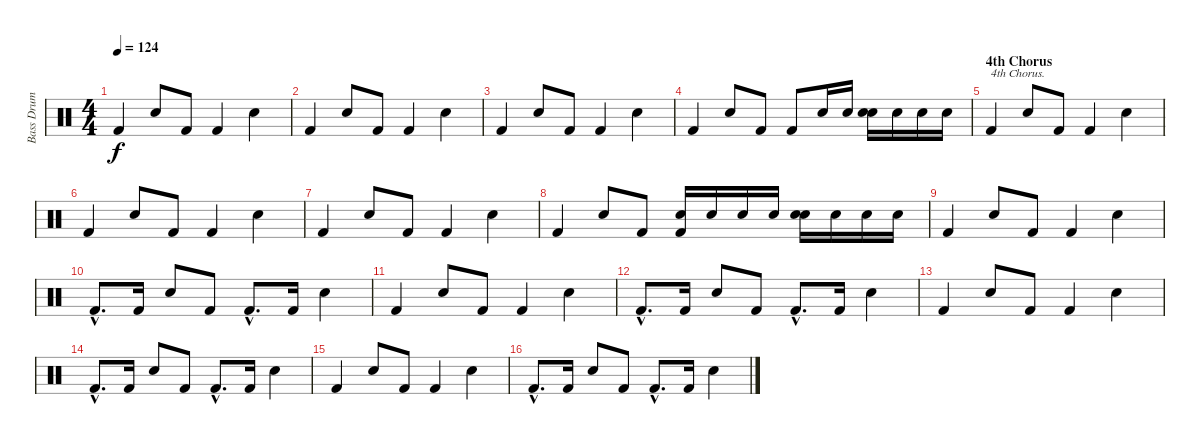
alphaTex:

\track ("Bass Drum and Snares" "Bass Drum ") {instrument percussion}
\staff {score}
\articulation defaults
\ts (4 4)
\tempo 124
\clef neutral
\ks c "Kick (hit) 2".4{dy f} "Snare (hit) 2".8 "Kick (hit) 2".8 "Kick (hit) 2".4 "Snare (hit) 2".4
|
"Kick (hit) 2".4 "Snare (hit) 2".8 "Kick (hit) 2".8 "Kick (hit) 2".4 "Snare (hit) 2".4 |
"Kick (hit) 2".4 "Snare (hit) 2".8 "Kick (hit) 2".8 "Kick (hit) 2".4 "Snare (hit) 2".4 |
"Kick (hit) 2".4 "Snare (hit) 2".8 "Kick (hit) 2".8 "Kick (hit) 2".8 "Electric Snare (hit)".16 "Electric Snare (hit)".16 ("Electric Snare (hit)" "Snare (hit) 2").16 "Electric Snare (hit)".16 "Electric Snare (hit)".16 "Electric Snare (hit)".16 |
\section ("" "4th Chorus")
"Kick (hit) 2".4{txt "4th Chorus."} "Snare (hit) 2".8 "Kick (hit) 2".8 "Kick (hit) 2".4 "Snare (hit) 2".4 |
"Kick (hit) 2".4 "Snare (hit) 2".8 "Kick (hit) 2".8 "Kick (hit) 2".4 "Snare (hit) 2".4 |
"Kick (hit) 2".4 "Snare (hit) 2".8 "Kick (hit) 2".8 "Kick (hit) 2".4 "Snare (hit) 2".4 |
"Kick (hit) 2".4 "Snare (hit) 2".8 "Kick (hit) 2".8 ("Electric Snare (hit)" "Kick (hit) 2").16 "Electric Snare (hit)".16 "Electric Snare (hit)".16 "Electric Snare (hit)".16 ("Electric Snare (hit)" "Snare (hit) 2").16 "Electric Snare (hit)".16 "Electric Snare (hit)".16 "Electric Snare (hit)".16 |
"Kick (hit) 2".4 "Snare (hit) 2".8 "Kick (hit) 2".8 "Kick (hit) 2".4 "Snare (hit) 2".4 |
"Kick (hit) 2"{hac}.8{d} "Kick (hit) 2".16 "Snare (hit) 2".8 "Kick (hit) 2".8 "Kick (hit) 2"{hac}.8{d} "Kick (hit) 2".16 "Snare (hit) 2".4 |
"Kick (hit) 2".4 "Snare (hit) 2".8 "Kick (hit) 2".8 "Kick (hit) 2".4 "Snare (hit) 2".4 |
"Kick (hit) 2"{hac}.8{d} "Kick (hit) 2".16 "Snare (hit) 2".8 "Kick (hit) 2".8 "Kick (hit) 2"{hac}.8{d} "Kick (hit) 2".16 "Snare (hit) 2".4 |
"Kick (hit) 2".4 "Snare (hit) 2".8 "Kick (hit) 2".8 "Kick (hit) 2".4 "Snare (hit) 2".4 |
"Kick (hit) 2"{hac}.8{d} "Kick (hit) 2".16 "Snare (hit) 2".8 "Kick (hit) 2".8 "Kick (hit) 2"{hac}.8{d} "Kick (hit) 2".16 "Snare (hit) 2".4 |
"Kick (hit) 2".4 "Snare (hit) 2".8 "Kick (hit) 2".8 "Kick (hit) 2".4 "Snare (hit) 2".4 |
"Kick (hit) 2"{hac}.8{d} "Kick (hit) 2".16 "Snare (hit) 2".8 "Kick (hit) 2".8 "Kick (hit) 2"{hac}.8{d} "Kick (hit) 2".16 "Snare (hit) 2".4
